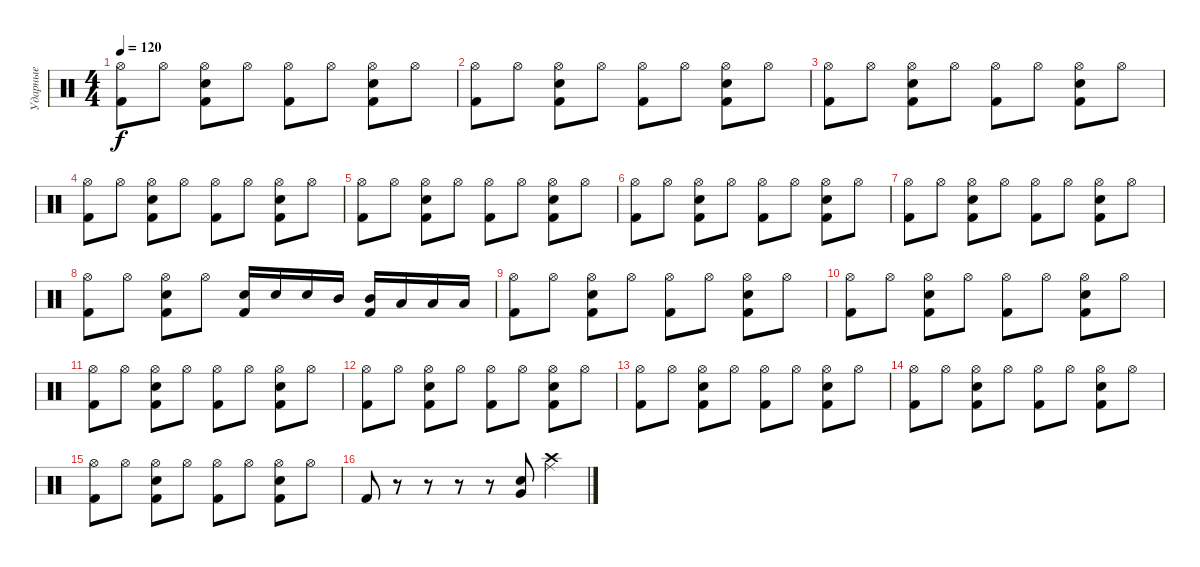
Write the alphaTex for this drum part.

\track ("Ударные" "Ударные") {instrument percussion}
\staff {score}
\articulation defaults
\ts (4 4)
\tempo 120
\clef neutral
\ks c
("Hi-Hat (open)" "Kick (hit) 2").8{dy f} "Hi-Hat (open)".8 ("Hi-Hat (open)" "Kick (hit) 2" "Snare (hit) 2").8 "Hi-Hat (open)".8 ("Hi-Hat (open)" "Kick (hit) 2").8 "Hi-Hat (open)".8 ("Hi-Hat (open)" "Kick (hit) 2" "Snare (hit) 2").8 "Hi-Hat (open)".8 |
("Hi-Hat (open)" "Kick (hit) 2").8 "Hi-Hat (open)".8 ("Hi-Hat (open)" "Kick (hit) 2" "Snare (hit) 2").8 "Hi-Hat (open)".8 ("Hi-Hat (open)" "Kick (hit) 2").8 "Hi-Hat (open)".8 ("Hi-Hat (open)" "Kick (hit) 2" "Snare (hit) 2").8 "Hi-Hat (open)".8 |
("Hi-Hat (open)" "Kick (hit) 2").8 "Hi-Hat (open)".8 ("Hi-Hat (open)" "Kick (hit) 2" "Snare (hit) 2").8 "Hi-Hat (open)".8 ("Hi-Hat (open)" "Kick (hit) 2").8 "Hi-Hat (open)".8 ("Hi-Hat (open)" "Kick (hit) 2" "Snare (hit) 2").8 "Hi-Hat (open)".8 |
("Hi-Hat (open)" "Kick (hit) 2").8 "Hi-Hat (open)".8 ("Hi-Hat (open)" "Kick (hit) 2" "Snare (hit) 2").8 "Hi-Hat (open)".8 ("Hi-Hat (open)" "Kick (hit) 2").8 "Hi-Hat (open)".8 ("Hi-Hat (open)" "Kick (hit) 2" "Snare (hit) 2").8 "Hi-Hat (open)".8 |
("Hi-Hat (open)" "Kick (hit) 2").8 "Hi-Hat (open)".8 ("Hi-Hat (open)" "Kick (hit) 2" "Snare (hit) 2").8 "Hi-Hat (open)".8 ("Hi-Hat (open)" "Kick (hit) 2").8 "Hi-Hat (open)".8 ("Hi-Hat (open)" "Kick (hit) 2" "Snare (hit) 2").8 "Hi-Hat (open)".8 |
("Hi-Hat (open)" "Kick (hit) 2").8 "Hi-Hat (open)".8 ("Hi-Hat (open)" "Kick (hit) 2" "Snare (hit) 2").8 "Hi-Hat (open)".8 ("Hi-Hat (open)" "Kick (hit) 2").8 "Hi-Hat (open)".8 ("Hi-Hat (open)" "Kick (hit) 2" "Snare (hit) 2").8 "Hi-Hat (open)".8 |
("Hi-Hat (open)" "Kick (hit) 2").8 "Hi-Hat (open)".8 ("Hi-Hat (open)" "Kick (hit) 2" "Snare (hit) 2").8 "Hi-Hat (open)".8 ("Hi-Hat (open)" "Kick (hit) 2").8 "Hi-Hat (open)".8 ("Hi-Hat (open)" "Kick (hit) 2" "Snare (hit) 2").8 "Hi-Hat (open)".8 |
("Hi-Hat (open)" "Kick (hit) 2").8 "Hi-Hat (open)".8 ("Hi-Hat (open)" "Kick (hit) 2" "Snare (hit) 2").8 "Hi-Hat (open)".8 ("Snare (hit) 2" "Kick (hit) 2").16 "Snare (hit) 2".16 "Snare (hit) 2".16 "Mid Tom (hit)".16 ("Mid Tom (hit)" "Kick (hit) 2").16 "Low Tom (hit)".16 "Low Tom (hit)".16 "Low Tom (hit)".16 |
("Hi-Hat (open)" "Kick (hit) 2").8 "Hi-Hat (open)".8 ("Hi-Hat (open)" "Kick (hit) 2" "Snare (hit) 2").8 "Hi-Hat (open)".8 ("Hi-Hat (open)" "Kick (hit) 2").8 "Hi-Hat (open)".8 ("Hi-Hat (open)" "Kick (hit) 2" "Snare (hit) 2").8 "Hi-Hat (open)".8 |
("Hi-Hat (open)" "Kick (hit) 2").8 "Hi-Hat (open)".8 ("Hi-Hat (open)" "Kick (hit) 2" "Snare (hit) 2").8 "Hi-Hat (open)".8 ("Hi-Hat (open)" "Kick (hit) 2").8 "Hi-Hat (open)".8 ("Hi-Hat (open)" "Kick (hit) 2" "Snare (hit) 2").8 "Hi-Hat (open)".8 |
("Hi-Hat (open)" "Kick (hit) 2").8 "Hi-Hat (open)".8 ("Hi-Hat (open)" "Kick (hit) 2" "Snare (hit) 2").8 "Hi-Hat (open)".8 ("Hi-Hat (open)" "Kick (hit) 2").8 "Hi-Hat (open)".8 ("Hi-Hat (open)" "Kick (hit) 2" "Snare (hit) 2").8 "Hi-Hat (open)".8 |
("Hi-Hat (open)" "Kick (hit) 2").8 "Hi-Hat (open)".8 ("Hi-Hat (open)" "Kick (hit) 2" "Snare (hit) 2").8 "Hi-Hat (open)".8 ("Hi-Hat (open)" "Kick (hit) 2").8 "Hi-Hat (open)".8 ("Hi-Hat (open)" "Kick (hit) 2" "Snare (hit) 2").8 "Hi-Hat (open)".8 |
("Hi-Hat (open)" "Kick (hit) 2").8 "Hi-Hat (open)".8 ("Hi-Hat (open)" "Kick (hit) 2" "Snare (hit) 2").8 "Hi-Hat (open)".8 ("Hi-Hat (open)" "Kick (hit) 2").8 "Hi-Hat (open)".8 ("Hi-Hat (open)" "Kick (hit) 2" "Snare (hit) 2").8 "Hi-Hat (open)".8 |
("Hi-Hat (open)" "Kick (hit) 2").8 "Hi-Hat (open)".8 ("Hi-Hat (open)" "Kick (hit) 2" "Snare (hit) 2").8 "Hi-Hat (open)".8 ("Hi-Hat (open)" "Kick (hit) 2").8 "Hi-Hat (open)".8 ("Hi-Hat (open)" "Kick (hit) 2" "Snare (hit) 2").8 "Hi-Hat (open)".8 |
("Hi-Hat (open)" "Kick (hit) 2").8 "Hi-Hat (open)".8 ("Hi-Hat (open)" "Kick (hit) 2" "Snare (hit) 2").8 "Hi-Hat (open)".8 ("Hi-Hat (open)" "Kick (hit) 2").8 "Hi-Hat (open)".8 ("Hi-Hat (open)" "Kick (hit) 2" "Snare (hit) 2").8 "Hi-Hat (open)".8 |
"Kick (hit) 2".8 r.8 r.8 r.8 r.8 ("Snare (hit) 2" "Very Low Tom (hit)").8 ("Ride (middle)" "Crash high (hit)").4
